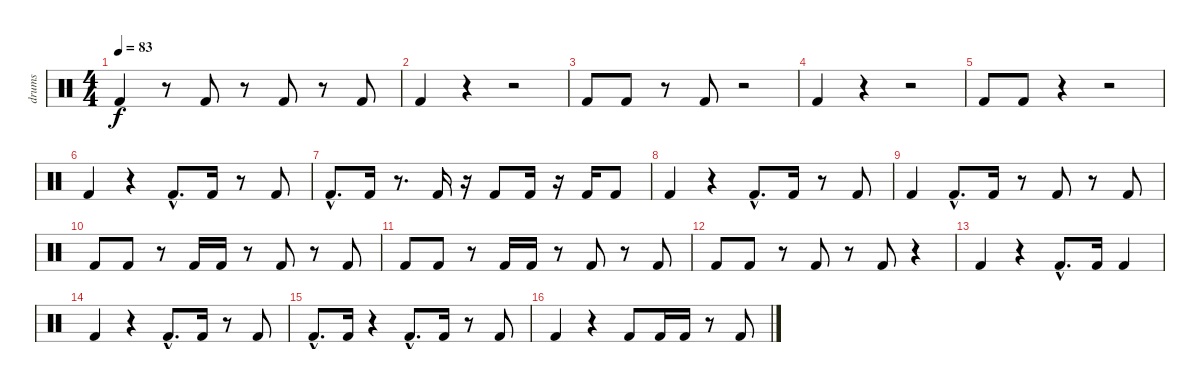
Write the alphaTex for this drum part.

\track ("drums" "drums") {instrument percussion}
\staff {score}
\articulation defaults
\ts (4 4)
\tempo 83
\clef neutral
\ks c "Kick (hit) 2".4{dy f}
r.8 "Kick (hit) 2".8 r.8 "Kick (hit) 2".8 r.8 "Kick (hit) 2".8 |
"Kick (hit) 2".4 r.4 r.2 |
"Kick (hit) 2".8 "Kick (hit) 2".8 r.8 "Kick (hit) 2".8 r.2 |
"Kick (hit) 2".4 r.4 r.2 |
"Kick (hit) 2".8 "Kick (hit) 2".8 r.4 r.2 |
"Kick (hit) 2".4 r.4 "Kick (hit) 2"{hac}.8{d} "Kick (hit) 2".16 r.8 "Kick (hit) 2".8 |
"Kick (hit) 2"{hac}.8{d} "Kick (hit) 2".16 r.8{d} "Kick (hit) 2".16 r.16 "Kick (hit) 2".8 "Kick (hit) 2".16 r.16 "Kick (hit) 2".16 "Kick (hit) 2".8 |
"Kick (hit) 2".4 r.4 "Kick (hit) 2"{hac}.8{d} "Kick (hit) 2".16 r.8 "Kick (hit) 2".8 |
"Kick (hit) 2".4 "Kick (hit) 2"{hac}.8{d} "Kick (hit) 2".16 r.8 "Kick (hit) 2".8 r.8 "Kick (hit) 2".8 |
"Kick (hit) 2".8 "Kick (hit) 2".8 r.8 "Kick (hit) 2".16 "Kick (hit) 2".16 r.8 "Kick (hit) 2".8 r.8 "Kick (hit) 2".8 |
"Kick (hit) 2".8 "Kick (hit) 2".8 r.8 "Kick (hit) 2".16 "Kick (hit) 2".16 r.8 "Kick (hit) 2".8 r.8 "Kick (hit) 2".8 |
"Kick (hit) 2".8 "Kick (hit) 2".8 r.8 "Kick (hit) 2".8 r.8 "Kick (hit) 2".8 r.4 |
"Kick (hit) 2".4 r.4 "Kick (hit) 2"{hac}.8{d} "Kick (hit) 2".16 "Kick (hit) 2".4 |
"Kick (hit) 2".4 r.4 "Kick (hit) 2"{hac}.8{d} "Kick (hit) 2".16 r.8 "Kick (hit) 2".8 |
"Kick (hit) 2"{hac}.8{d} "Kick (hit) 2".16 r.4 "Kick (hit) 2"{hac}.8{d} "Kick (hit) 2".16 r.8 "Kick (hit) 2".8 |
"Kick (hit) 2".4 r.4 "Kick (hit) 2".8 "Kick (hit) 2".16 "Kick (hit) 2".16 r.8 "Kick (hit) 2".8
